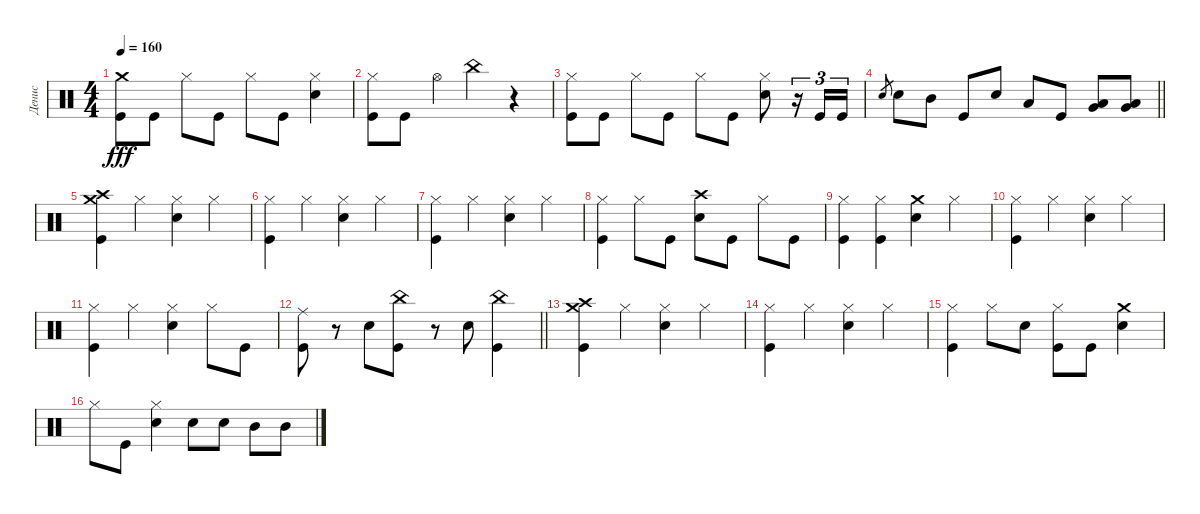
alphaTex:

\track ("Денис" "Денис") {instrument percussion}
\staff {score}
\articulation defaults
\ts (4 4)
\tempo 160
\clef neutral
\ks c
("Kick (hit)" "Crash medium (hit)").8{dy fff} "Kick (hit)".8 "Hi-Hat (closed)".8 "Kick (hit)".8 "Hi-Hat (closed)".8 "Kick (hit)".8 ("Electric Snare (hit)" "Hi-Hat (closed)").4 |
("Kick (hit)" "Hi-Hat (closed)").8 "Kick (hit)".8 "Hi-Hat (open)".4 "China (hit)".4 r.4 |
("Kick (hit)" "Hi-Hat (closed)").8 "Kick (hit)".8 "Hi-Hat (closed)".8 "Kick (hit)".8 "Hi-Hat (closed)".8 "Kick (hit)".8 ("Electric Snare (hit)" "Hi-Hat (closed)").8 r.16{tu (3 2)} "Kick (hit)".16{tu (3 2)} "Kick (hit)".16{tu (3 2)} |
\barLineRight lightlight "Electric Snare (hit)".8{gr} "Electric Snare (hit)".8 "Mid Tom (hit)".8 "Kick (hit)".8 "Electric Snare (hit)".8 "Low Tom (hit)".8 "Kick (hit)".8
("Very Low Tom (hit)" "Low Floor Tom (hit)").8 ("Very Low Tom (hit)" "Low Floor Tom (hit)").8 |
("Crash medium (hit)" "Crash high (hit)" "Kick (hit)").4 "Hi-Hat (closed)".4 ("Hi-Hat (closed)" "Electric Snare (hit)").4 "Hi-Hat (closed)".4 |
("Hi-Hat (closed)" "Kick (hit)").4 "Hi-Hat (closed)".4 ("Hi-Hat (closed)" "Electric Snare (hit)").4 "Hi-Hat (closed)".4 |
("Hi-Hat (closed)" "Kick (hit)").4 "Hi-Hat (closed)".4 ("Hi-Hat (closed)" "Electric Snare (hit)").4 "Hi-Hat (closed)".4 |
("Hi-Hat (closed)" "Kick (hit)").4 "Hi-Hat (closed)".8 "Kick (hit)".8 ("Electric Snare (hit)" "Crash high (hit)").8 "Kick (hit)".8 "Hi-Hat (closed)".8 "Kick (hit)".8 |
("Hi-Hat (closed)" "Kick (hit)").4 ("Hi-Hat (closed)" "Kick (hit)").4 ("Electric Snare (hit)" "Crash medium (hit)").4 "Hi-Hat (closed)".4 |
("Hi-Hat (closed)" "Kick (hit)").4 "Hi-Hat (closed)".4 ("Hi-Hat (closed)" "Electric Snare (hit)").4 "Hi-Hat (closed)".4 |
("Hi-Hat (closed)" "Kick (hit)").4 "Hi-Hat (closed)".4 ("Hi-Hat (closed)" "Electric Snare (hit)").4 "Hi-Hat (closed)".8 "Kick (hit)".8 |
\barLineRight lightlight
("Ride (middle)" "Kick (hit)").8 r.8 "Electric Snare (hit)".8 ("Kick (hit)" "China (hit)").8 r.8 "Electric Snare (hit)".8 ("China (hit)" "Kick (hit)").4 |
("Crash medium (hit)" "Crash high (hit)" "Kick (hit)").4 "Hi-Hat (closed)".4 ("Hi-Hat (closed)" "Electric Snare (hit)").4 "Hi-Hat (closed)".4 |
("Hi-Hat (closed)" "Kick (hit)").4 "Hi-Hat (closed)".4 ("Hi-Hat (closed)" "Electric Snare (hit)").4 "Hi-Hat (closed)".4 |
("Hi-Hat (closed)" "Kick (hit)").4 "Hi-Hat (closed)".8 "Electric Snare (hit)".8 ("Kick (hit)" "Hi-Hat (closed)").8 "Kick (hit)".8 ("Electric Snare (hit)" "Crash medium (hit)").4 |
"Hi-Hat (closed)".8 "Kick (hit)".8 ("Electric Snare (hit)" "Hi-Hat (closed)").4 "Electric Snare (hit)".8 "Electric Snare (hit)".8 "Mid Tom (hit)".8 "Mid Tom (hit)".8
